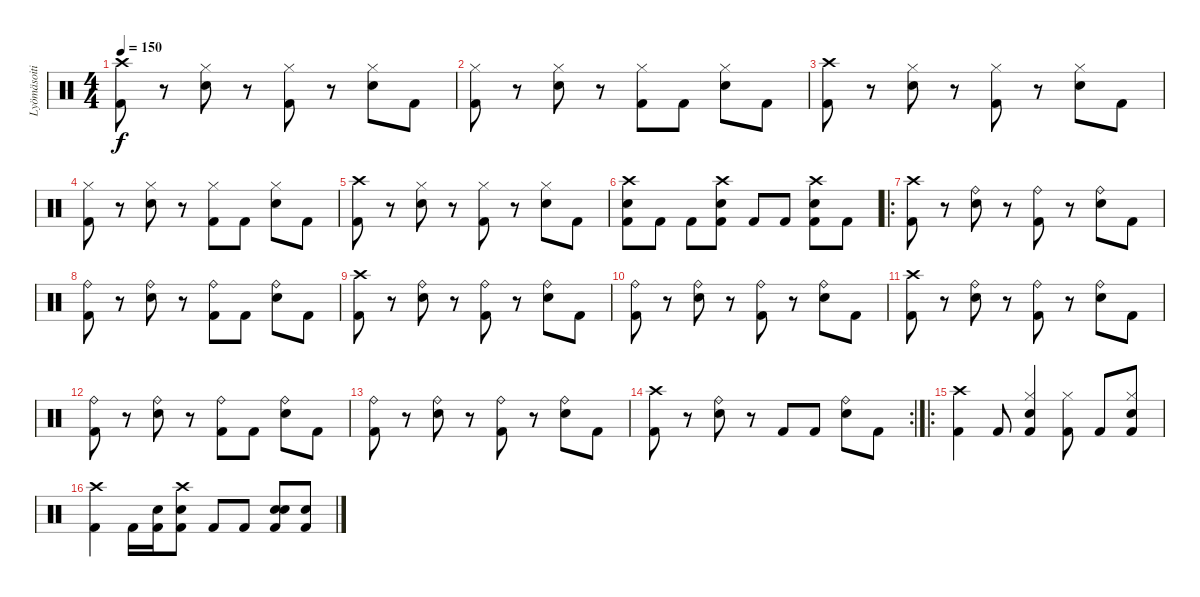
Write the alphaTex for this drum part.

\track ("Lyömäsoitin" "Lyömäsoiti") {instrument percussion}
\staff {score}
\articulation defaults
\ts (4 4)
\tempo 150
\clef neutral
\ks c
("Crash high (hit)" "Kick (hit) 2").8{dy f} r.8 ("Hi-Hat (closed)" "Electric Snare (hit)").8 r.8 ("Hi-Hat (closed)" "Kick (hit) 2").8 r.8 ("Hi-Hat (closed)" "Electric Snare (hit)").8 "Kick (hit) 2".8 |
("Hi-Hat (closed)" "Kick (hit) 2").8 r.8 ("Hi-Hat (closed)" "Electric Snare (hit)").8 r.8 ("Hi-Hat (closed)" "Kick (hit) 2").8 "Kick (hit) 2".8 ("Hi-Hat (closed)" "Electric Snare (hit)").8 "Kick (hit) 2".8 |
("Crash high (hit)" "Kick (hit) 2").8 r.8 ("Hi-Hat (closed)" "Electric Snare (hit)").8 r.8 ("Hi-Hat (closed)" "Kick (hit) 2").8 r.8 ("Hi-Hat (closed)" "Electric Snare (hit)").8 "Kick (hit) 2".8 |
("Hi-Hat (closed)" "Kick (hit) 2").8 r.8 ("Hi-Hat (closed)" "Electric Snare (hit)").8 r.8 ("Hi-Hat (closed)" "Kick (hit) 2").8 "Kick (hit) 2".8 ("Hi-Hat (closed)" "Electric Snare (hit)").8 "Kick (hit) 2".8 |
("Crash high (hit)" "Kick (hit) 2").8 r.8 ("Hi-Hat (closed)" "Electric Snare (hit)").8 r.8 ("Hi-Hat (closed)" "Kick (hit) 2").8 r.8 ("Hi-Hat (closed)" "Electric Snare (hit)").8 "Kick (hit) 2".8 |
("Kick (hit) 2" "Crash high (hit)" "Electric Snare (hit)").8 "Kick (hit) 2".8 "Kick (hit) 2".8 ("Kick (hit) 2" "Crash high (hit)" "Electric Snare (hit)").8 "Kick (hit) 2".8 "Kick (hit) 2".8 ("Kick (hit) 2" "Crash high (hit)" "Electric Snare (hit)").8 "Kick (hit) 2".8 |
\ro
("Crash high (hit)" "Kick (hit) 2").8 r.8 ("Ride (bell)" "Electric Snare (hit)").8 r.8 ("Ride (bell)" "Kick (hit) 2").8 r.8 ("Ride (bell)" "Electric Snare (hit)").8 "Kick (hit) 2".8 |
("Ride (bell)" "Kick (hit) 2").8 r.8 ("Ride (bell)" "Electric Snare (hit)").8 r.8 ("Ride (bell)" "Kick (hit) 2").8 "Kick (hit) 2".8 ("Ride (bell)" "Electric Snare (hit)").8 "Kick (hit) 2".8 |
("Crash high (hit)" "Kick (hit) 2").8 r.8 ("Ride (bell)" "Electric Snare (hit)").8 r.8 ("Ride (bell)" "Kick (hit) 2").8 r.8 ("Ride (bell)" "Electric Snare (hit)").8 "Kick (hit) 2".8 |
("Ride (bell)" "Kick (hit) 2").8 r.8 ("Ride (bell)" "Electric Snare (hit)").8 r.8 ("Ride (bell)" "Kick (hit) 2").8 r.8 ("Ride (bell)" "Electric Snare (hit)").8 "Kick (hit) 2".8 |
("Crash high (hit)" "Kick (hit) 2").8 r.8 ("Ride (bell)" "Electric Snare (hit)").8 r.8 ("Ride (bell)" "Kick (hit) 2").8 r.8 ("Ride (bell)" "Electric Snare (hit)").8 "Kick (hit) 2".8 |
("Ride (bell)" "Kick (hit) 2").8 r.8 ("Ride (bell)" "Electric Snare (hit)").8 r.8 ("Ride (bell)" "Kick (hit) 2").8 "Kick (hit) 2".8 ("Ride (bell)" "Electric Snare (hit)").8 "Kick (hit) 2".8 |
("Ride (bell)" "Kick (hit) 2").8 r.8 ("Ride (bell)" "Electric Snare (hit)").8 r.8 ("Ride (bell)" "Kick (hit) 2").8 r.8 ("Ride (bell)" "Electric Snare (hit)").8 "Kick (hit) 2".8 |
\rc 2
("Kick (hit) 2" "Crash high (hit)").8 r.8 ("Ride (bell)" "Electric Snare (hit)").8 r.8 "Kick (hit) 2".8 "Kick (hit) 2".8 ("Ride (bell)" "Electric Snare (hit)").8 "Kick (hit) 2".8 |
\ro
("Kick (hit) 2" "Crash high (hit)").4 "Kick (hit) 2".8 ("Kick (hit) 2" "Hi-Hat (closed)" "Electric Snare (hit)").4 ("Kick (hit) 2" "Hi-Hat (closed)").8 "Kick (hit) 2".8 ("Kick (hit) 2" "Hi-Hat (closed)" "Electric Snare (hit)").8 |
("Kick (hit) 2" "Crash high (hit)").4 "Kick (hit) 2".16 ("Kick (hit) 2" "Snare (hit)").16 ("Kick (hit) 2" "Crash high (hit)" "Electric Snare (hit)").8 "Kick (hit) 2".8 "Kick (hit) 2".8 ("Kick (hit) 2" "Electric Snare (hit)" "Electric Snare (hit)").8 ("Kick (hit) 2" "Electric Snare (hit)").8
